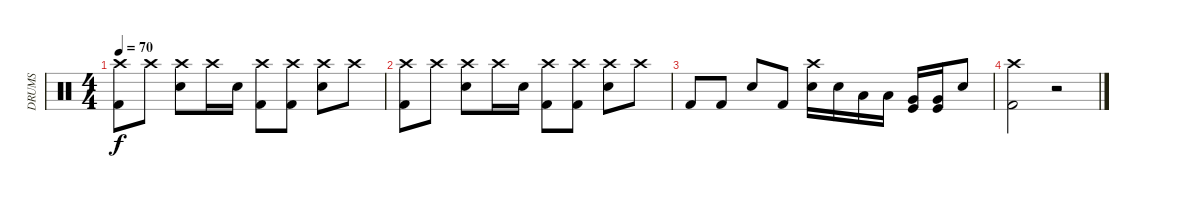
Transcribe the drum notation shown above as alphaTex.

\track ("DRUMS" "DRUMS") {instrument percussion}
\staff {score}
\articulation defaults
\ts (4 4)
\tempo 70
\clef neutral
\ks c
("Crash high (hit)" "Kick (hit) 2").8{dy f} "Crash high (hit)".8 ("Crash high (hit)" "Snare (hit) 2").8 "Crash high (hit)".16 "Snare (hit) 2".16 ("Crash high (hit)" "Kick (hit) 2").8 ("Crash high (hit)" "Kick (hit) 2").8 ("Crash high (hit)" "Snare (hit) 2").8 "Crash high (hit)".8 |
("Crash high (hit)" "Kick (hit) 2").8 "Crash high (hit)".8 ("Crash high (hit)" "Snare (hit) 2").8 "Crash high (hit)".16 "Snare (hit) 2".16 ("Crash high (hit)" "Kick (hit) 2").8 ("Crash high (hit)" "Kick (hit) 2").8 ("Crash high (hit)" "Snare (hit) 2").8 "Crash high (hit)".8 |
"Kick (hit) 2".8 "Kick (hit) 2".8 "Snare (hit) 2".8 "Kick (hit) 2".8 ("Crash high (hit)" "Snare (hit) 2").16 "Snare (hit) 2".16 "Low Tom (hit)".16 "Low Tom (hit)".16 ("Kick (hit)" "Very Low Tom (hit)").16 ("Kick (hit)" "Very Low Tom (hit)").16 "Snare (hit) 2".8 |
("Crash high (hit)" "Kick (hit) 2").2 r.2
